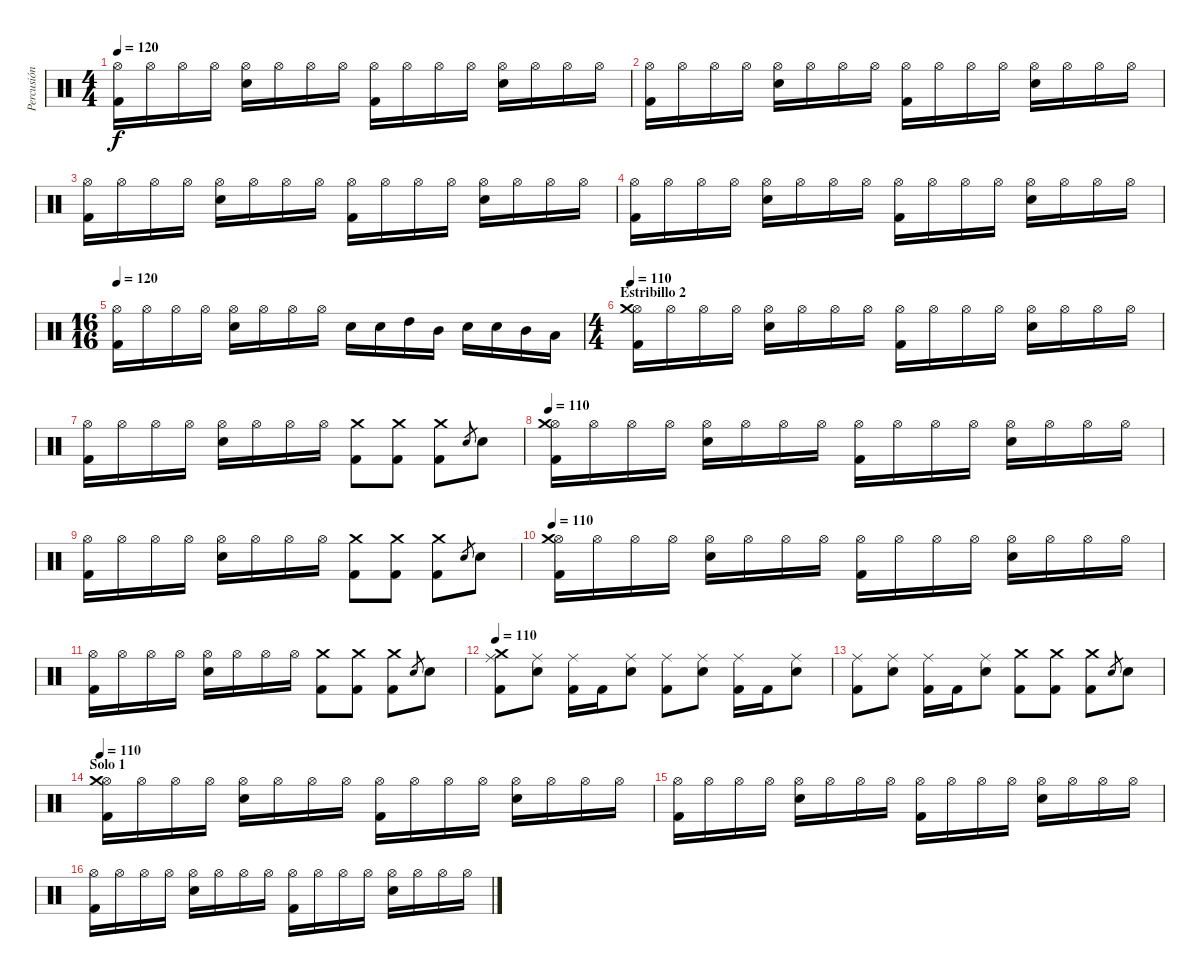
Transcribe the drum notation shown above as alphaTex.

\track ("Percusión" "Percusión") {instrument percussion}
\staff {score}
\articulation defaults
\ts (4 4)
\tempo 120
\clef neutral
\ks c
("Hi-Hat (open)" "Kick (hit) 2").16{dy f} "Hi-Hat (open)".16 "Hi-Hat (open)".16 "Hi-Hat (open)".16 ("Hi-Hat (open)" "Snare (hit) 2").16 "Hi-Hat (open)".16 "Hi-Hat (open)".16 "Hi-Hat (open)".16 ("Hi-Hat (open)" "Kick (hit) 2").16 "Hi-Hat (open)".16 "Hi-Hat (open)".16 "Hi-Hat (open)".16 ("Hi-Hat (open)" "Snare (hit) 2").16 "Hi-Hat (open)".16 "Hi-Hat (open)".16 "Hi-Hat (open)".16 |
("Hi-Hat (open)" "Kick (hit) 2").16 "Hi-Hat (open)".16 "Hi-Hat (open)".16 "Hi-Hat (open)".16 ("Hi-Hat (open)" "Snare (hit) 2").16 "Hi-Hat (open)".16 "Hi-Hat (open)".16 "Hi-Hat (open)".16 ("Hi-Hat (open)" "Kick (hit) 2").16 "Hi-Hat (open)".16 "Hi-Hat (open)".16 "Hi-Hat (open)".16 ("Hi-Hat (open)" "Snare (hit) 2").16 "Hi-Hat (open)".16 "Hi-Hat (open)".16 "Hi-Hat (open)".16 |
("Hi-Hat (open)" "Kick (hit) 2").16 "Hi-Hat (open)".16 "Hi-Hat (open)".16 "Hi-Hat (open)".16 ("Hi-Hat (open)" "Snare (hit) 2").16 "Hi-Hat (open)".16 "Hi-Hat (open)".16 "Hi-Hat (open)".16 ("Hi-Hat (open)" "Kick (hit) 2").16 "Hi-Hat (open)".16 "Hi-Hat (open)".16 "Hi-Hat (open)".16 ("Hi-Hat (open)" "Snare (hit) 2").16 "Hi-Hat (open)".16 "Hi-Hat (open)".16 "Hi-Hat (open)".16 |
("Hi-Hat (open)" "Kick (hit) 2").16 "Hi-Hat (open)".16 "Hi-Hat (open)".16 "Hi-Hat (open)".16 ("Hi-Hat (open)" "Snare (hit) 2").16 "Hi-Hat (open)".16 "Hi-Hat (open)".16 "Hi-Hat (open)".16 ("Hi-Hat (open)" "Kick (hit) 2").16 "Hi-Hat (open)".16 "Hi-Hat (open)".16 "Hi-Hat (open)".16 ("Hi-Hat (open)" "Snare (hit) 2").16 "Hi-Hat (open)".16 "Hi-Hat (open)".16 "Hi-Hat (open)".16 |
\ts (16 16)
\tempo 120
("Hi-Hat (open)" "Kick (hit) 2").16 "Hi-Hat (open)".16 "Hi-Hat (open)".16 "Hi-Hat (open)".16 ("Hi-Hat (open)" "Snare (hit) 2").16 "Hi-Hat (open)".16 "Hi-Hat (open)".16 "Hi-Hat (open)".16 "Snare (hit) 2".16 "Snare (hit) 2".16 "High Tom (hit)".16 "Mid Tom (hit)".16 "Snare (hit) 2".16 "Snare (hit) 2".16 "Mid Tom (hit)".16 "Low Tom (hit)".16 |
\ts (4 4)
\section ("" "Estribillo 2")
\tempo 110
("Hi-Hat (open)" "Kick (hit) 2" "Crash medium (hit)").16 "Hi-Hat (open)".16 "Hi-Hat (open)".16 "Hi-Hat (open)".16 ("Hi-Hat (open)" "Snare (hit) 2").16 "Hi-Hat (open)".16 "Hi-Hat (open)".16 "Hi-Hat (open)".16 ("Hi-Hat (open)" "Kick (hit) 2").16 "Hi-Hat (open)".16 "Hi-Hat (open)".16 "Hi-Hat (open)".16 ("Hi-Hat (open)" "Snare (hit) 2").16 "Hi-Hat (open)".16 "Hi-Hat (open)".16 "Hi-Hat (open)".16 |
("Hi-Hat (open)" "Kick (hit) 2").16 "Hi-Hat (open)".16 "Hi-Hat (open)".16 "Hi-Hat (open)".16 ("Hi-Hat (open)" "Snare (hit) 2").16 "Hi-Hat (open)".16 "Hi-Hat (open)".16 "Hi-Hat (open)".16 ("Crash medium (hit)" "Kick (hit) 2").8 ("Crash medium (hit)" "Kick (hit) 2").8 ("Crash medium (hit)" "Kick (hit) 2").8 "Snare (hit) 2".8{gr} "Snare (hit) 2".8 |
\tempo 110
("Hi-Hat (open)" "Kick (hit) 2" "Crash medium (hit)").16 "Hi-Hat (open)".16 "Hi-Hat (open)".16 "Hi-Hat (open)".16 ("Hi-Hat (open)" "Snare (hit) 2").16 "Hi-Hat (open)".16 "Hi-Hat (open)".16 "Hi-Hat (open)".16 ("Hi-Hat (open)" "Kick (hit) 2").16 "Hi-Hat (open)".16 "Hi-Hat (open)".16 "Hi-Hat (open)".16 ("Hi-Hat (open)" "Snare (hit) 2").16 "Hi-Hat (open)".16 "Hi-Hat (open)".16 "Hi-Hat (open)".16 |
("Hi-Hat (open)" "Kick (hit) 2").16 "Hi-Hat (open)".16 "Hi-Hat (open)".16 "Hi-Hat (open)".16 ("Hi-Hat (open)" "Snare (hit) 2").16 "Hi-Hat (open)".16 "Hi-Hat (open)".16 "Hi-Hat (open)".16 ("Crash medium (hit)" "Kick (hit) 2").8 ("Crash medium (hit)" "Kick (hit) 2").8 ("Crash medium (hit)" "Kick (hit) 2").8 "Snare (hit) 2".8{gr} "Snare (hit) 2".8 |
\tempo 110
("Hi-Hat (open)" "Kick (hit) 2" "Crash medium (hit)").16 "Hi-Hat (open)".16 "Hi-Hat (open)".16 "Hi-Hat (open)".16 ("Hi-Hat (open)" "Snare (hit) 2").16 "Hi-Hat (open)".16 "Hi-Hat (open)".16 "Hi-Hat (open)".16 ("Hi-Hat (open)" "Kick (hit) 2").16 "Hi-Hat (open)".16 "Hi-Hat (open)".16 "Hi-Hat (open)".16 ("Hi-Hat (open)" "Snare (hit) 2").16 "Hi-Hat (open)".16 "Hi-Hat (open)".16 "Hi-Hat (open)".16 |
("Hi-Hat (open)" "Kick (hit) 2").16 "Hi-Hat (open)".16 "Hi-Hat (open)".16 "Hi-Hat (open)".16 ("Hi-Hat (open)" "Snare (hit) 2").16 "Hi-Hat (open)".16 "Hi-Hat (open)".16 "Hi-Hat (open)".16 ("Crash medium (hit)" "Kick (hit) 2").8 ("Crash medium (hit)" "Kick (hit) 2").8 ("Crash medium (hit)" "Kick (hit) 2").8 "Snare (hit) 2".8{gr} "Snare (hit) 2".8 |
\tempo 110
("Kick (hit) 2" "Ride (middle)" "Crash medium (hit)").8 ("Snare (hit) 2" "Ride (middle)").8 ("Kick (hit) 2" "Ride (middle)").16 "Kick (hit) 2".16 ("Snare (hit) 2" "Ride (middle)").8 ("Kick (hit) 2" "Ride (middle)").8 ("Snare (hit) 2" "Ride (middle)").8 ("Kick (hit) 2" "Ride (middle)").16 "Kick (hit) 2".16 ("Snare (hit) 2" "Ride (middle)").8 |
("Kick (hit) 2" "Ride (middle)").8 ("Snare (hit) 2" "Ride (middle)").8 ("Kick (hit) 2" "Ride (middle)").16 "Kick (hit) 2".16 ("Snare (hit) 2" "Ride (middle)").8 ("Crash medium (hit)" "Kick (hit) 2").8 ("Crash medium (hit)" "Kick (hit) 2").8 ("Crash medium (hit)" "Kick (hit) 2").8 "Snare (hit) 2".8{gr} "Snare (hit) 2".8 |
\section ("" "Solo 1")
\tempo 110
("Hi-Hat (open)" "Kick (hit) 2" "Crash medium (hit)").16 "Hi-Hat (open)".16 "Hi-Hat (open)".16 "Hi-Hat (open)".16 ("Hi-Hat (open)" "Snare (hit) 2").16 "Hi-Hat (open)".16 "Hi-Hat (open)".16 "Hi-Hat (open)".16 ("Hi-Hat (open)" "Kick (hit) 2").16 "Hi-Hat (open)".16 "Hi-Hat (open)".16 "Hi-Hat (open)".16 ("Hi-Hat (open)" "Snare (hit) 2").16 "Hi-Hat (open)".16 "Hi-Hat (open)".16 "Hi-Hat (open)".16 |
("Hi-Hat (open)" "Kick (hit) 2").16 "Hi-Hat (open)".16 "Hi-Hat (open)".16 "Hi-Hat (open)".16 ("Hi-Hat (open)" "Snare (hit) 2").16 "Hi-Hat (open)".16 "Hi-Hat (open)".16 "Hi-Hat (open)".16 ("Hi-Hat (open)" "Kick (hit) 2").16 "Hi-Hat (open)".16 "Hi-Hat (open)".16 "Hi-Hat (open)".16 ("Hi-Hat (open)" "Snare (hit) 2").16 "Hi-Hat (open)".16 "Hi-Hat (open)".16 "Hi-Hat (open)".16 |
("Hi-Hat (open)" "Kick (hit) 2").16 "Hi-Hat (open)".16 "Hi-Hat (open)".16 "Hi-Hat (open)".16 ("Hi-Hat (open)" "Snare (hit) 2").16 "Hi-Hat (open)".16 "Hi-Hat (open)".16 "Hi-Hat (open)".16 ("Hi-Hat (open)" "Kick (hit) 2").16 "Hi-Hat (open)".16 "Hi-Hat (open)".16 "Hi-Hat (open)".16 ("Hi-Hat (open)" "Snare (hit) 2").16 "Hi-Hat (open)".16 "Hi-Hat (open)".16 "Hi-Hat (open)".16
